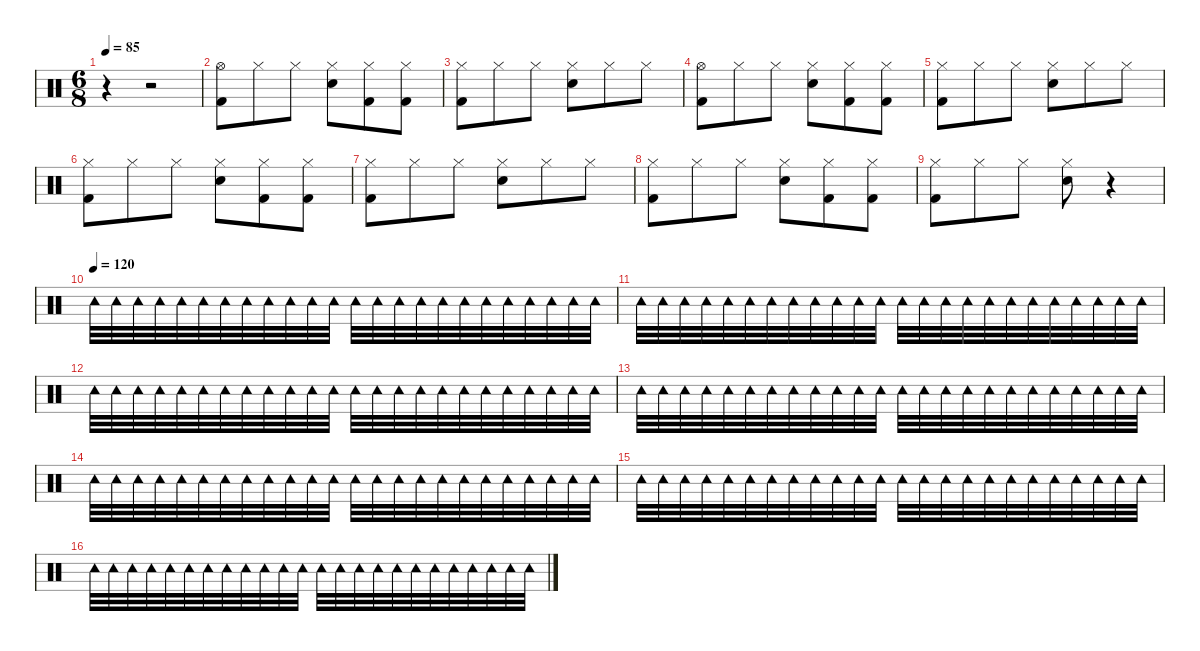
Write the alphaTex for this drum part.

\defaultSystemsLayout 4
\hideDynamics
\bracketExtendMode nobrackets
\singleTrackTrackNamePolicy hidden
\multiTrackTrackNamePolicy hidden
\firstSystemTrackNameMode fullname
\firstSystemTrackNameOrientation horizontal
\otherSystemsTrackNameOrientation horizontal
\track ("Drums" "drm.") {instrument percussion}
\staff {score}
\articulation defaults
\ts (6 8)
\tempo 85
\clef neutral
\ks c
r.4{dy f beam Down} r.2{beam Down} |
("Hi-Hat (open)" "Kick (hit) 2").8{beam Down} "Hi-Hat (closed)".8{dy mp beam Down} "Hi-Hat (closed)".8{beam Down} ("Hi-Hat (closed)" "Snare (hit) 2").8{beam Down} ("Hi-Hat (closed)" "Kick (hit) 2").8{beam Down} ("Hi-Hat (closed)" "Kick (hit) 2").8{beam Down} |
("Hi-Hat (closed)" "Kick (hit) 2").8{beam Down} "Hi-Hat (closed)".8{beam Down} "Hi-Hat (closed)".8{beam Down} ("Hi-Hat (closed)" "Snare (hit) 2").8{beam Down} "Hi-Hat (closed)".8{beam Down} "Hi-Hat (closed)".8{beam Down} |
("Hi-Hat (open)" "Kick (hit) 2").8{beam Down} "Hi-Hat (closed)".8{beam Down} "Hi-Hat (closed)".8{beam Down} ("Hi-Hat (closed)" "Snare (hit) 2").8{beam Down} ("Hi-Hat (closed)" "Kick (hit) 2").8{beam Down} ("Hi-Hat (closed)" "Kick (hit) 2").8{beam Down} |
("Hi-Hat (closed)" "Kick (hit) 2").8{beam Down} "Hi-Hat (closed)".8{beam Down} "Hi-Hat (closed)".8{beam Down} ("Hi-Hat (closed)" "Snare (hit) 2").8{beam Down} "Hi-Hat (closed)".8{beam Down} "Hi-Hat (closed)".8{beam Down} |
("Hi-Hat (closed)" "Kick (hit) 2").8{beam Down} "Hi-Hat (closed)".8{beam Down} "Hi-Hat (closed)".8{beam Down} ("Hi-Hat (closed)" "Snare (hit) 2").8{beam Down} ("Hi-Hat (closed)" "Kick (hit) 2").8{beam Down} ("Hi-Hat (closed)" "Kick (hit) 2").8{beam Down} |
("Hi-Hat (closed)" "Kick (hit) 2").8{beam Down} "Hi-Hat (closed)".8{beam Down} "Hi-Hat (closed)".8{beam Down} ("Hi-Hat (closed)" "Snare (hit) 2").8{beam Down} "Hi-Hat (closed)".8{beam Down} "Hi-Hat (closed)".8{beam Down} |
("Hi-Hat (closed)" "Kick (hit) 2").8{beam Down} "Hi-Hat (closed)".8{beam Down} "Hi-Hat (closed)".8{beam Down} ("Hi-Hat (closed)" "Snare (hit) 2").8{beam Down} ("Hi-Hat (closed)" "Kick (hit) 2").8{beam Down} ("Hi-Hat (closed)" "Kick (hit) 2").8{beam Down} |
("Hi-Hat (closed)" "Kick (hit) 2").8{beam Down} "Hi-Hat (closed)".8{beam Down} "Hi-Hat (closed)".8{beam Down} ("Hi-Hat (closed)" "Snare (hit) 2").8{beam Down} r.4{beam Down} |
\tempo (120)
"Tambourine (hit)".32{dy mf beam Down} "Tambourine (hit)".32{beam Down} "Tambourine (hit)".32{beam Down} "Tambourine (hit)".32{beam Down} "Tambourine (hit)".32{beam Down} "Tambourine (hit)".32{beam Down} "Tambourine (hit)".32{beam Down} "Tambourine (hit)".32{beam Down} "Tambourine (hit)".32{beam Down} "Tambourine (hit)".32{beam Down} "Tambourine (hit)".32{beam Down} "Tambourine (hit)".32{beam Down} "Tambourine (hit)".32{beam Down} "Tambourine (hit)".32{beam Down} "Tambourine (hit)".32{beam Down} "Tambourine (hit)".32{beam Down} "Tambourine (hit)".32{beam Down} "Tambourine (hit)".32{beam Down} "Tambourine (hit)".32{beam Down} "Tambourine (hit)".32{beam Down} "Tambourine (hit)".32{beam Down} "Tambourine (hit)".32{beam Down} "Tambourine (hit)".32{beam Down} "Tambourine (hit)".32{beam Down} |
"Tambourine (hit)".32{beam Down} "Tambourine (hit)".32{beam Down} "Tambourine (hit)".32{beam Down} "Tambourine (hit)".32{beam Down} "Tambourine (hit)".32{beam Down} "Tambourine (hit)".32{beam Down} "Tambourine (hit)".32{beam Down} "Tambourine (hit)".32{beam Down} "Tambourine (hit)".32{beam Down} "Tambourine (hit)".32{beam Down} "Tambourine (hit)".32{beam Down} "Tambourine (hit)".32{beam Down} "Tambourine (hit)".32{beam Down} "Tambourine (hit)".32{beam Down} "Tambourine (hit)".32{beam Down} "Tambourine (hit)".32{beam Down} "Tambourine (hit)".32{beam Down} "Tambourine (hit)".32{beam Down} "Tambourine (hit)".32{beam Down} "Tambourine (hit)".32{beam Down} "Tambourine (hit)".32{beam Down} "Tambourine (hit)".32{beam Down} "Tambourine (hit)".32{beam Down} "Tambourine (hit)".32{beam Down} |
"Tambourine (hit)".32{beam Down} "Tambourine (hit)".32{beam Down} "Tambourine (hit)".32{beam Down} "Tambourine (hit)".32{beam Down} "Tambourine (hit)".32{beam Down} "Tambourine (hit)".32{beam Down} "Tambourine (hit)".32{beam Down} "Tambourine (hit)".32{beam Down} "Tambourine (hit)".32{beam Down} "Tambourine (hit)".32{beam Down} "Tambourine (hit)".32{beam Down} "Tambourine (hit)".32{beam Down} "Tambourine (hit)".32{beam Down} "Tambourine (hit)".32{beam Down} "Tambourine (hit)".32{beam Down} "Tambourine (hit)".32{beam Down} "Tambourine (hit)".32{beam Down} "Tambourine (hit)".32{beam Down} "Tambourine (hit)".32{beam Down} "Tambourine (hit)".32{beam Down} "Tambourine (hit)".32{beam Down} "Tambourine (hit)".32{beam Down} "Tambourine (hit)".32{beam Down} "Tambourine (hit)".32{beam Down} |
"Tambourine (hit)".32{beam Down} "Tambourine (hit)".32{beam Down} "Tambourine (hit)".32{beam Down} "Tambourine (hit)".32{beam Down} "Tambourine (hit)".32{beam Down} "Tambourine (hit)".32{beam Down} "Tambourine (hit)".32{beam Down} "Tambourine (hit)".32{beam Down} "Tambourine (hit)".32{beam Down} "Tambourine (hit)".32{beam Down} "Tambourine (hit)".32{beam Down} "Tambourine (hit)".32{beam Down} "Tambourine (hit)".32{beam Down} "Tambourine (hit)".32{beam Down} "Tambourine (hit)".32{beam Down} "Tambourine (hit)".32{beam Down} "Tambourine (hit)".32{beam Down} "Tambourine (hit)".32{beam Down} "Tambourine (hit)".32{beam Down} "Tambourine (hit)".32{beam Down} "Tambourine (hit)".32{beam Down} "Tambourine (hit)".32{beam Down} "Tambourine (hit)".32{beam Down} "Tambourine (hit)".32{beam Down} |
"Tambourine (hit)".32{beam Down} "Tambourine (hit)".32{beam Down} "Tambourine (hit)".32{beam Down} "Tambourine (hit)".32{beam Down} "Tambourine (hit)".32{beam Down} "Tambourine (hit)".32{beam Down} "Tambourine (hit)".32{beam Down} "Tambourine (hit)".32{beam Down} "Tambourine (hit)".32{beam Down} "Tambourine (hit)".32{beam Down} "Tambourine (hit)".32{beam Down} "Tambourine (hit)".32{beam Down} "Tambourine (hit)".32{beam Down} "Tambourine (hit)".32{beam Down} "Tambourine (hit)".32{beam Down} "Tambourine (hit)".32{beam Down} "Tambourine (hit)".32{beam Down} "Tambourine (hit)".32{beam Down} "Tambourine (hit)".32{beam Down} "Tambourine (hit)".32{beam Down} "Tambourine (hit)".32{beam Down} "Tambourine (hit)".32{beam Down} "Tambourine (hit)".32{beam Down} "Tambourine (hit)".32{beam Down} |
"Tambourine (hit)".32{beam Down} "Tambourine (hit)".32{beam Down} "Tambourine (hit)".32{beam Down} "Tambourine (hit)".32{beam Down} "Tambourine (hit)".32{beam Down} "Tambourine (hit)".32{beam Down} "Tambourine (hit)".32{beam Down} "Tambourine (hit)".32{beam Down} "Tambourine (hit)".32{beam Down} "Tambourine (hit)".32{beam Down} "Tambourine (hit)".32{beam Down} "Tambourine (hit)".32{beam Down} "Tambourine (hit)".32{beam Down} "Tambourine (hit)".32{beam Down} "Tambourine (hit)".32{beam Down} "Tambourine (hit)".32{beam Down} "Tambourine (hit)".32{beam Down} "Tambourine (hit)".32{beam Down} "Tambourine (hit)".32{beam Down} "Tambourine (hit)".32{beam Down} "Tambourine (hit)".32{beam Down} "Tambourine (hit)".32{beam Down} "Tambourine (hit)".32{beam Down} "Tambourine (hit)".32{beam Down} |
"Tambourine (hit)".32{beam Down} "Tambourine (hit)".32{beam Down} "Tambourine (hit)".32{beam Down} "Tambourine (hit)".32{beam Down} "Tambourine (hit)".32{beam Down} "Tambourine (hit)".32{beam Down} "Tambourine (hit)".32{beam Down} "Tambourine (hit)".32{beam Down} "Tambourine (hit)".32{beam Down} "Tambourine (hit)".32{beam Down} "Tambourine (hit)".32{beam Down} "Tambourine (hit)".32{beam Down} "Tambourine (hit)".32{beam Down} "Tambourine (hit)".32{beam Down} "Tambourine (hit)".32{beam Down} "Tambourine (hit)".32{beam Down} "Tambourine (hit)".32{beam Down} "Tambourine (hit)".32{beam Down} "Tambourine (hit)".32{beam Down} "Tambourine (hit)".32{beam Down} "Tambourine (hit)".32{beam Down} "Tambourine (hit)".32{beam Down} "Tambourine (hit)".32{beam Down} "Tambourine (hit)".32{beam Down}
